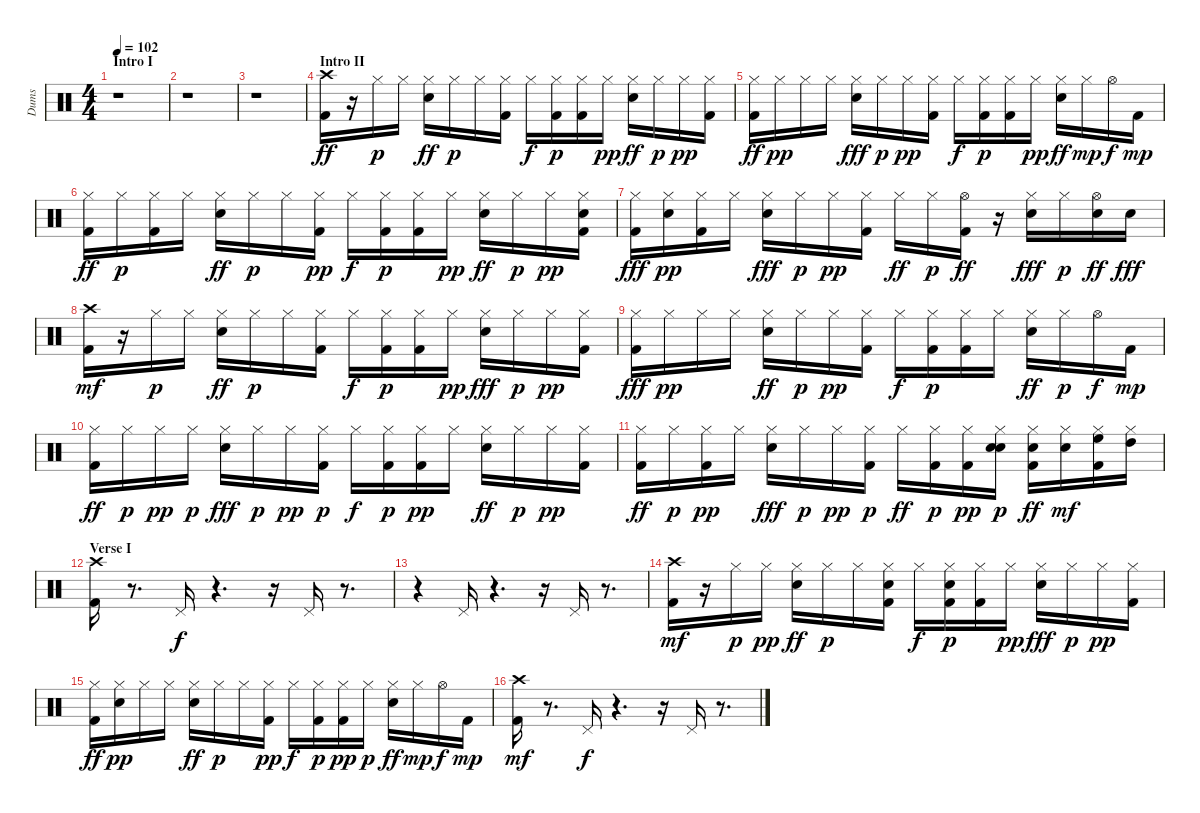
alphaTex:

\track ("Dums" "Dums") {instrument percussion}
\staff {score}
\articulation defaults
\ts (4 4)
\section ("" "Intro I")
\tempo 102
\clef neutral
\ks c
r.1{dy ff} |
r.1 |
r.1 |
\section ("" "Intro II")
("Kick (hit) 2" "Crash high (hit)").16 r.16 "Hi-Hat (closed)".16{dy p} "Hi-Hat (closed)".16 ("Electric Snare (hit)" "Hi-Hat (closed)").16{dy ff} "Hi-Hat (closed)".16{dy p} "Hi-Hat (closed)".16 ("Kick (hit) 2" "Hi-Hat (closed)").16 "Hi-Hat (closed)".16{dy f} ("Kick (hit) 2" "Hi-Hat (closed)").16{dy p} ("Kick (hit) 2" "Hi-Hat (closed)").16 "Hi-Hat (closed)".16{dy pp} ("Electric Snare (hit)" "Hi-Hat (closed)").16{dy ff} "Hi-Hat (closed)".16{dy p} "Hi-Hat (closed)".16{dy pp} ("Kick (hit) 2" "Hi-Hat (closed)").16 |
("Kick (hit) 2" "Hi-Hat (closed)").16{dy ff} "Hi-Hat (closed)".16{dy pp} "Hi-Hat (closed)".16 "Hi-Hat (closed)".16 ("Electric Snare (hit)" "Hi-Hat (closed)").16{dy fff} "Hi-Hat (closed)".16{dy p} "Hi-Hat (closed)".16{dy pp} ("Kick (hit) 2" "Hi-Hat (closed)").16 "Hi-Hat (closed)".16{dy f} ("Kick (hit) 2" "Hi-Hat (closed)").16{dy p} ("Kick (hit) 2" "Hi-Hat (closed)").16 "Hi-Hat (closed)".16{dy pp} ("Electric Snare (hit)" "Hi-Hat (closed)").16{dy ff} "Hi-Hat (closed)".16{dy mp} "Hi-Hat (open)".16{dy f} "Kick (hit) 2".16{dy mp} |
("Kick (hit) 2" "Hi-Hat (closed)").16{dy ff} "Hi-Hat (closed)".16{dy p} ("Kick (hit) 2" "Hi-Hat (closed)").16 "Hi-Hat (closed)".16 ("Electric Snare (hit)" "Hi-Hat (closed)").16{dy ff} "Hi-Hat (closed)".16{dy p} "Hi-Hat (closed)".16 ("Kick (hit) 2" "Hi-Hat (closed)").16{dy pp} "Hi-Hat (closed)".16{dy f} ("Kick (hit) 2" "Hi-Hat (closed)").16{dy p} ("Kick (hit) 2" "Hi-Hat (closed)").16 "Hi-Hat (closed)".16{dy pp} ("Electric Snare (hit)" "Hi-Hat (closed)").16{dy ff} "Hi-Hat (closed)".16{dy p} "Hi-Hat (closed)".16{dy pp} ("Kick (hit) 2" "Electric Snare (hit)" "Hi-Hat (closed)").16 |
("Kick (hit) 2" "Hi-Hat (closed)").16{dy fff} ("Electric Snare (hit)" "Hi-Hat (closed)").16{dy pp} ("Kick (hit) 2" "Hi-Hat (closed)").16 "Hi-Hat (closed)".16 ("Electric Snare (hit)" "Hi-Hat (closed)").16{dy fff} "Hi-Hat (closed)".16{dy p} "Hi-Hat (closed)".16{dy pp} ("Kick (hit) 2" "Hi-Hat (closed)").16 "Hi-Hat (closed)".16{dy ff} "Hi-Hat (closed)".16{dy p} ("Kick (hit) 2" "Hi-Hat (open)").16{dy ff} r.16 ("Electric Snare (hit)" "Hi-Hat (closed)").16{dy fff} "Hi-Hat (closed)".16{dy p} ("Electric Snare (hit)" "Hi-Hat (open)").16{dy ff} "Electric Snare (hit)".16{dy fff} |
("Kick (hit) 2" "Crash high (hit)").16{dy mf} r.16 "Hi-Hat (closed)".16{dy p} "Hi-Hat (closed)".16 ("Electric Snare (hit)" "Hi-Hat (closed)").16{dy ff} "Hi-Hat (closed)".16{dy p} "Hi-Hat (closed)".16 ("Kick (hit) 2" "Hi-Hat (closed)").16 "Hi-Hat (closed)".16{dy f} ("Kick (hit) 2" "Hi-Hat (closed)").16{dy p} ("Kick (hit) 2" "Hi-Hat (closed)").16 "Hi-Hat (closed)".16{dy pp} ("Electric Snare (hit)" "Hi-Hat (closed)").16{dy fff} "Hi-Hat (closed)".16{dy p} "Hi-Hat (closed)".16{dy pp} ("Kick (hit) 2" "Hi-Hat (closed)").16 |
("Kick (hit) 2" "Hi-Hat (closed)").16{dy fff} "Hi-Hat (closed)".16{dy pp} "Hi-Hat (closed)".16 "Hi-Hat (closed)".16 ("Electric Snare (hit)" "Hi-Hat (closed)").16{dy ff} "Hi-Hat (closed)".16{dy p} "Hi-Hat (closed)".16{dy pp} ("Kick (hit) 2" "Hi-Hat (closed)").16 "Hi-Hat (closed)".16{dy f} ("Kick (hit) 2" "Hi-Hat (closed)").16{dy p} ("Kick (hit) 2" "Hi-Hat (closed)").16 "Hi-Hat (closed)".16 ("Electric Snare (hit)" "Hi-Hat (closed)").16{dy ff} "Hi-Hat (closed)".16{dy p} "Hi-Hat (open)".16{dy f} "Kick (hit) 2".16{dy mp} |
("Kick (hit) 2" "Hi-Hat (closed)").16{dy ff} "Hi-Hat (closed)".16{dy p} "Hi-Hat (closed)".16{dy pp} "Hi-Hat (closed)".16{dy p} ("Electric Snare (hit)" "Hi-Hat (closed)").16{dy fff} "Hi-Hat (closed)".16{dy p} "Hi-Hat (closed)".16{dy pp} ("Kick (hit) 2" "Hi-Hat (closed)").16{dy p} "Hi-Hat (closed)".16{dy f} ("Kick (hit) 2" "Hi-Hat (closed)").16{dy p} ("Kick (hit) 2" "Hi-Hat (closed)").16{dy pp} "Hi-Hat (closed)".16 ("Electric Snare (hit)" "Hi-Hat (closed)").16{dy ff} "Hi-Hat (closed)".16{dy p} "Hi-Hat (closed)".16{dy pp} ("Kick (hit) 2" "Hi-Hat (closed)").16 |
("Kick (hit) 2" "Hi-Hat (closed)").16{dy ff} "Hi-Hat (closed)".16{dy p} ("Kick (hit) 2" "Hi-Hat (closed)").16{dy pp} "Hi-Hat (closed)".16 ("Electric Snare (hit)" "Hi-Hat (closed)").16{dy fff} "Hi-Hat (closed)".16{dy p} "Hi-Hat (closed)".16{dy pp} ("Kick (hit) 2" "Hi-Hat (closed)").16{dy p} "Hi-Hat (closed)".16{dy ff} ("Kick (hit) 2" "Hi-Hat (closed)").16{dy p} ("Kick (hit) 2" "Hi-Hat (closed)").16{dy pp} ("Electric Snare (hit)" "Hi-Hat (closed)" "Electric Snare (hit)").16{dy p} ("Kick (hit) 2" "Electric Snare (hit)" "Hi-Hat (closed)").16{dy ff} ("Electric Snare (hit)" "Hi-Hat (closed)").16{dy mf} ("Kick (hit) 2" "Hi-Hat (closed)" "High Floor Tom (hit)").16 ("Hi-Hat (closed)" "High Tom (hit)").16 |
\section ("" "Verse I")
("Kick (hit) 2" "Crash high (hit)").16 r.8{d} "Pedal Hi-Hat (hit)".16{dy f} r.4{d} r.16 "Pedal Hi-Hat (hit)".16 r.8{d} |
r.4 "Pedal Hi-Hat (hit)".16 r.4{d} r.16 "Pedal Hi-Hat (hit)".16 r.8{d} |
("Kick (hit) 2" "Crash high (hit)").16{dy mf} r.16 "Hi-Hat (closed)".16{dy p} "Hi-Hat (closed)".16{dy pp} ("Electric Snare (hit)" "Hi-Hat (closed)").16{dy ff} "Hi-Hat (closed)".16{dy p} "Hi-Hat (closed)".16 ("Kick (hit) 2" "Electric Snare (hit)" "Hi-Hat (closed)").16 "Hi-Hat (closed)".16{dy f} ("Kick (hit) 2" "Electric Snare (hit)" "Hi-Hat (closed)").16{dy p} ("Kick (hit) 2" "Hi-Hat (closed)").16 "Hi-Hat (closed)".16{dy pp} ("Electric Snare (hit)" "Hi-Hat (closed)").16{dy fff} "Hi-Hat (closed)".16{dy p} "Hi-Hat (closed)".16{dy pp} ("Kick (hit) 2" "Hi-Hat (closed)").16 |
("Kick (hit) 2" "Hi-Hat (closed)").16{dy ff} ("Electric Snare (hit)" "Hi-Hat (closed)").16{dy pp} "Hi-Hat (closed)".16 "Hi-Hat (closed)".16 ("Electric Snare (hit)" "Hi-Hat (closed)").16{dy ff} "Hi-Hat (closed)".16{dy p} "Hi-Hat (closed)".16 ("Kick (hit) 2" "Hi-Hat (closed)").16{dy pp} "Hi-Hat (closed)".16{dy f} ("Kick (hit) 2" "Hi-Hat (closed)").16{dy p} ("Kick (hit) 2" "Hi-Hat (closed)").16{dy pp} "Hi-Hat (closed)".16{dy p} ("Electric Snare (hit)" "Hi-Hat (closed)").16{dy ff} "Hi-Hat (closed)".16{dy mp} "Hi-Hat (open)".16{dy f} "Kick (hit) 2".16{dy mp} |
("Kick (hit) 2" "Crash high (hit)").16{dy mf} r.8{d} "Pedal Hi-Hat (hit)".16{dy f} r.4{d} r.16 "Pedal Hi-Hat (hit)".16 r.8{d}
